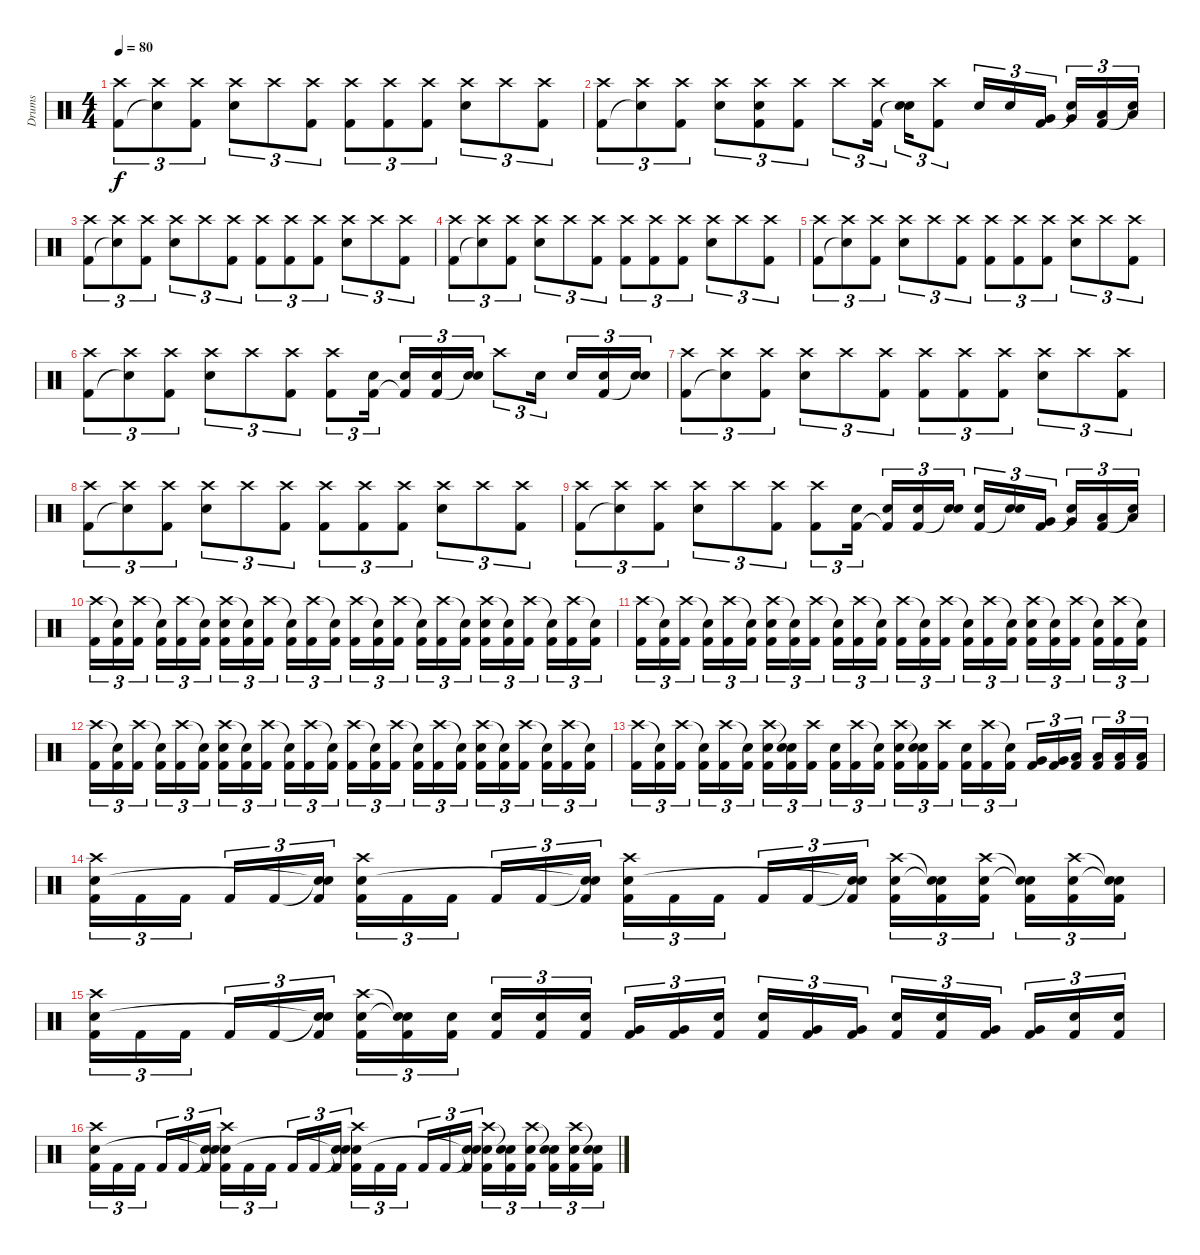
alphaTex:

\track ("Drums" "Drums") {instrument percussion}
\staff {score}
\articulation defaults
\ts (4 4)
\tempo 80
\clef neutral
\ks c
("Crash high (hit)" "Kick (hit) 2").8{tu (3 2) dy f} ("Crash high (hit)" "Snare (hit)"{t}).8{tu (3 2)} ("Crash high (hit)" "Kick (hit) 2").8{tu (3 2)} ("Crash high (hit)" "Snare (hit) 2").8{tu (3 2)} "Crash high (hit)".8{tu (3 2)} ("Crash high (hit)" "Kick (hit) 2").8{tu (3 2)} ("Crash high (hit)" "Kick (hit) 2").8{tu (3 2)} ("Crash high (hit)" "Kick (hit) 2").8{tu (3 2)} ("Crash high (hit)" "Kick (hit) 2").8{tu (3 2)} ("Crash high (hit)" "Snare (hit) 2").8{tu (3 2)} "Crash high (hit)".8{tu (3 2)} ("Crash high (hit)" "Kick (hit) 2").8{tu (3 2)} |
("Crash high (hit)" "Kick (hit) 2").8{tu (3 2)} ("Crash high (hit)" "Snare (hit)"{t}).8{tu (3 2)} ("Crash high (hit)" "Kick (hit) 2").8{tu (3 2)} ("Crash high (hit)" "Snare (hit) 2").8{tu (3 2)} ("Crash high (hit)" "Snare (hit) 2" "Kick (hit) 2").8{tu (3 2)} ("Crash high (hit)" "Kick (hit) 2").8{tu (3 2)} "Crash high (hit)".8{tu (3 2)} ("Crash high (hit)" "Kick (hit) 2").16{tu (3 2)} ("Snare (hit) 2" "Snare (hit)"{t}).16{tu (3 2)} ("Crash high (hit)" "Kick (hit) 2").8{tu (3 2)} "Snare (hit) 2".16{tu (3 2)} "Snare (hit) 2".16{tu (3 2)} ("Very Low Tom (hit)" "Kick (hit) 2").16{tu (3 2)} ("Very Low Tom (hit)" "Snare (hit)"{t}).16{tu (3 2)} ("Low Floor Tom (hit)" "Kick (hit) 2").16{tu (3 2)} ("Low Floor Tom (hit)" "Snare (hit)"{t}).16{tu (3 2)} |
("Crash high (hit)" "Kick (hit) 2").8{tu (3 2)} ("Crash high (hit)" "Snare (hit)"{t}).8{tu (3 2)} ("Crash high (hit)" "Kick (hit) 2").8{tu (3 2)} ("Crash high (hit)" "Snare (hit) 2").8{tu (3 2)} "Crash high (hit)".8{tu (3 2)} ("Crash high (hit)" "Kick (hit) 2").8{tu (3 2)} ("Crash high (hit)" "Kick (hit) 2").8{tu (3 2)} ("Crash high (hit)" "Kick (hit) 2").8{tu (3 2)} ("Crash high (hit)" "Kick (hit) 2").8{tu (3 2)} ("Crash high (hit)" "Snare (hit) 2").8{tu (3 2)} "Crash high (hit)".8{tu (3 2)} ("Crash high (hit)" "Kick (hit) 2").8{tu (3 2)} |
("Crash high (hit)" "Kick (hit) 2").8{tu (3 2)} ("Crash high (hit)" "Snare (hit)"{t}).8{tu (3 2)} ("Crash high (hit)" "Kick (hit) 2").8{tu (3 2)} ("Crash high (hit)" "Snare (hit) 2").8{tu (3 2)} "Crash high (hit)".8{tu (3 2)} ("Crash high (hit)" "Kick (hit) 2").8{tu (3 2)} ("Crash high (hit)" "Kick (hit) 2").8{tu (3 2)} ("Crash high (hit)" "Kick (hit) 2").8{tu (3 2)} ("Crash high (hit)" "Kick (hit) 2").8{tu (3 2)} ("Crash high (hit)" "Snare (hit) 2").8{tu (3 2)} "Crash high (hit)".8{tu (3 2)} ("Crash high (hit)" "Kick (hit) 2").8{tu (3 2)} |
("Crash high (hit)" "Kick (hit) 2").8{tu (3 2)} ("Crash high (hit)" "Snare (hit)"{t}).8{tu (3 2)} ("Crash high (hit)" "Kick (hit) 2").8{tu (3 2)} ("Crash high (hit)" "Snare (hit) 2").8{tu (3 2)} "Crash high (hit)".8{tu (3 2)} ("Crash high (hit)" "Kick (hit) 2").8{tu (3 2)} ("Crash high (hit)" "Kick (hit) 2").8{tu (3 2)} ("Crash high (hit)" "Kick (hit) 2").8{tu (3 2)} ("Crash high (hit)" "Kick (hit) 2").8{tu (3 2)} ("Crash high (hit)" "Snare (hit) 2").8{tu (3 2)} "Crash high (hit)".8{tu (3 2)} ("Crash high (hit)" "Kick (hit) 2").8{tu (3 2)} |
("Crash high (hit)" "Kick (hit) 2").8{tu (3 2)} ("Crash high (hit)" "Snare (hit)"{t}).8{tu (3 2)} ("Crash high (hit)" "Kick (hit) 2").8{tu (3 2)} ("Crash high (hit)" "Snare (hit) 2").8{tu (3 2)} "Crash high (hit)".8{tu (3 2)} ("Crash high (hit)" "Kick (hit) 2").8{tu (3 2)} ("Crash high (hit)" "Kick (hit) 2").8{tu (3 2)} ("Snare (hit) 2" "Kick (hit) 2").16{tu (3 2)} ("Snare (hit) 2" "Kick (hit) 2"{t}).16{tu (3 2)} ("Snare (hit) 2" "Kick (hit) 2").16{tu (3 2)} ("Snare (hit) 2" "Snare (hit)"{t}).16{tu (3 2)} "Crash high (hit)".8{tu (3 2)} "Snare (hit) 2".16{tu (3 2)} "Snare (hit) 2".16{tu (3 2)} ("Snare (hit) 2" "Kick (hit) 2").16{tu (3 2)} ("Snare (hit) 2" "Snare (hit)"{t}).16{tu (3 2)} |
("Crash high (hit)" "Kick (hit) 2").8{tu (3 2)} ("Crash high (hit)" "Snare (hit)"{t}).8{tu (3 2)} ("Crash high (hit)" "Kick (hit) 2").8{tu (3 2)} ("Crash high (hit)" "Snare (hit) 2").8{tu (3 2)} "Crash high (hit)".8{tu (3 2)} ("Crash high (hit)" "Kick (hit) 2").8{tu (3 2)} ("Crash high (hit)" "Kick (hit) 2").8{tu (3 2)} ("Crash high (hit)" "Kick (hit) 2").8{tu (3 2)} ("Crash high (hit)" "Kick (hit) 2").8{tu (3 2)} ("Crash high (hit)" "Snare (hit) 2").8{tu (3 2)} "Crash high (hit)".8{tu (3 2)} ("Crash high (hit)" "Kick (hit) 2").8{tu (3 2)} |
("Crash high (hit)" "Kick (hit) 2").8{tu (3 2)} ("Crash high (hit)" "Snare (hit)"{t}).8{tu (3 2)} ("Crash high (hit)" "Kick (hit) 2").8{tu (3 2)} ("Crash high (hit)" "Snare (hit) 2").8{tu (3 2)} "Crash high (hit)".8{tu (3 2)} ("Crash high (hit)" "Kick (hit) 2").8{tu (3 2)} ("Crash high (hit)" "Kick (hit) 2").8{tu (3 2)} ("Crash high (hit)" "Kick (hit) 2").8{tu (3 2)} ("Crash high (hit)" "Kick (hit) 2").8{tu (3 2)} ("Crash high (hit)" "Snare (hit) 2").8{tu (3 2)} "Crash high (hit)".8{tu (3 2)} ("Crash high (hit)" "Kick (hit) 2").8{tu (3 2)} |
("Crash high (hit)" "Kick (hit) 2").8{tu (3 2)} ("Crash high (hit)" "Snare (hit)"{t}).8{tu (3 2)} ("Crash high (hit)" "Kick (hit) 2").8{tu (3 2)} ("Crash high (hit)" "Snare (hit) 2").8{tu (3 2)} "Crash high (hit)".8{tu (3 2)} ("Crash high (hit)" "Kick (hit) 2").8{tu (3 2)} ("Crash high (hit)" "Kick (hit) 2").8{tu (3 2)} ("Snare (hit) 2" "Kick (hit) 2").16{tu (3 2)} ("Snare (hit) 2" "Kick (hit) 2"{t}).16{tu (3 2)} ("Snare (hit) 2" "Kick (hit) 2").16{tu (3 2)} ("Snare (hit) 2" "Snare (hit)"{t}).16{tu (3 2)} ("Snare (hit) 2" "Kick (hit) 2").16{tu (3 2)} ("Snare (hit) 2" "Snare (hit)"{t}).16{tu (3 2)} ("Very Low Tom (hit)" "Kick (hit) 2").16{tu (3 2)} ("Very Low Tom (hit)" "Snare (hit)"{t}).16{tu (3 2)} ("Low Floor Tom (hit)" "Kick (hit) 2").16{tu (3 2)} ("Low Floor Tom (hit)" "Snare (hit)"{t}).16{tu (3 2)} |
("Crash high (hit)" "Kick (hit) 2").16{tu (3 2)} ("Snare (hit)"{t} "Kick (hit) 2").16{tu (3 2)} ("Crash high (hit)" "Kick (hit) 2").16{tu (3 2)} ("Snare (hit)"{t} "Kick (hit) 2").16{tu (3 2)} ("Crash high (hit)" "Kick (hit) 2").16{tu (3 2)} ("Snare (hit)"{t} "Kick (hit) 2").16{tu (3 2)} ("Crash high (hit)" "Snare (hit) 2" "Kick (hit) 2").16{tu (3 2)} ("Snare (hit)"{t} "Kick (hit) 2").16{tu (3 2)} ("Crash high (hit)" "Kick (hit) 2").16{tu (3 2)} ("Snare (hit)"{t} "Kick (hit) 2").16{tu (3 2)} ("Crash high (hit)" "Kick (hit) 2").16{tu (3 2)} ("Snare (hit)"{t} "Kick (hit) 2").16{tu (3 2)} ("Crash high (hit)" "Kick (hit) 2").16{tu (3 2)} ("Snare (hit)"{t} "Kick (hit) 2").16{tu (3 2)} ("Crash high (hit)" "Kick (hit) 2").16{tu (3 2)} ("Snare (hit)"{t} "Kick (hit) 2").16{tu (3 2)} ("Crash high (hit)" "Kick (hit) 2").16{tu (3 2)} ("Snare (hit)"{t} "Kick (hit) 2").16{tu (3 2)} ("Crash high (hit)" "Snare (hit) 2" "Kick (hit) 2").16{tu (3 2)} ("Snare (hit)"{t} "Kick (hit) 2").16{tu (3 2)} ("Crash high (hit)" "Kick (hit) 2").16{tu (3 2)} ("Snare (hit)"{t} "Kick (hit) 2").16{tu (3 2)} ("Crash high (hit)" "Kick (hit) 2").16{tu (3 2)} ("Snare (hit)"{t} "Kick (hit) 2").16{tu (3 2)} |
("Crash high (hit)" "Kick (hit) 2").16{tu (3 2)} ("Snare (hit)"{t} "Kick (hit) 2").16{tu (3 2)} ("Crash high (hit)" "Kick (hit) 2").16{tu (3 2)} ("Snare (hit)"{t} "Kick (hit) 2").16{tu (3 2)} ("Crash high (hit)" "Kick (hit) 2").16{tu (3 2)} ("Snare (hit)"{t} "Kick (hit) 2").16{tu (3 2)} ("Crash high (hit)" "Snare (hit) 2" "Kick (hit) 2").16{tu (3 2)} ("Snare (hit)"{t} "Kick (hit) 2").16{tu (3 2)} ("Crash high (hit)" "Kick (hit) 2").16{tu (3 2)} ("Snare (hit)"{t} "Kick (hit) 2").16{tu (3 2)} ("Crash high (hit)" "Kick (hit) 2").16{tu (3 2)} ("Snare (hit)"{t} "Kick (hit) 2").16{tu (3 2)} ("Crash high (hit)" "Kick (hit) 2").16{tu (3 2)} ("Snare (hit)"{t} "Kick (hit) 2").16{tu (3 2)} ("Crash high (hit)" "Kick (hit) 2").16{tu (3 2)} ("Snare (hit)"{t} "Kick (hit) 2").16{tu (3 2)} ("Crash high (hit)" "Kick (hit) 2").16{tu (3 2)} ("Snare (hit)"{t} "Kick (hit) 2").16{tu (3 2)} ("Crash high (hit)" "Snare (hit) 2" "Kick (hit) 2").16{tu (3 2)} ("Snare (hit)"{t} "Kick (hit) 2").16{tu (3 2)} ("Crash high (hit)" "Kick (hit) 2").16{tu (3 2)} ("Snare (hit)"{t} "Kick (hit) 2").16{tu (3 2)} ("Crash high (hit)" "Kick (hit) 2").16{tu (3 2)} ("Snare (hit)"{t} "Kick (hit) 2").16{tu (3 2)} |
("Crash high (hit)" "Kick (hit) 2").16{tu (3 2)} ("Snare (hit)"{t} "Kick (hit) 2").16{tu (3 2)} ("Crash high (hit)" "Kick (hit) 2").16{tu (3 2)} ("Snare (hit)"{t} "Kick (hit) 2").16{tu (3 2)} ("Crash high (hit)" "Kick (hit) 2").16{tu (3 2)} ("Snare (hit)"{t} "Kick (hit) 2").16{tu (3 2)} ("Crash high (hit)" "Snare (hit) 2" "Kick (hit) 2").16{tu (3 2)} ("Snare (hit)"{t} "Kick (hit) 2").16{tu (3 2)} ("Crash high (hit)" "Kick (hit) 2").16{tu (3 2)} ("Snare (hit)"{t} "Kick (hit) 2").16{tu (3 2)} ("Crash high (hit)" "Kick (hit) 2").16{tu (3 2)} ("Snare (hit)"{t} "Kick (hit) 2").16{tu (3 2)} ("Crash high (hit)" "Kick (hit) 2").16{tu (3 2)} ("Snare (hit)"{t} "Kick (hit) 2").16{tu (3 2)} ("Crash high (hit)" "Kick (hit) 2").16{tu (3 2)} ("Snare (hit)"{t} "Kick (hit) 2").16{tu (3 2)} ("Crash high (hit)" "Kick (hit) 2").16{tu (3 2)} ("Snare (hit)"{t} "Kick (hit) 2").16{tu (3 2)} ("Crash high (hit)" "Snare (hit) 2" "Kick (hit) 2").16{tu (3 2)} ("Snare (hit)"{t} "Kick (hit) 2").16{tu (3 2)} ("Crash high (hit)" "Kick (hit) 2").16{tu (3 2)} ("Snare (hit)"{t} "Kick (hit) 2").16{tu (3 2)} ("Crash high (hit)" "Kick (hit) 2").16{tu (3 2)} ("Snare (hit)"{t} "Kick (hit) 2").16{tu (3 2)} |
("Crash high (hit)" "Kick (hit) 2").16{tu (3 2)} ("Snare (hit)"{t} "Kick (hit) 2").16{tu (3 2)} ("Crash high (hit)" "Kick (hit) 2").16{tu (3 2)} ("Snare (hit)"{t} "Kick (hit) 2").16{tu (3 2)} ("Crash high (hit)" "Kick (hit) 2").16{tu (3 2)} ("Snare (hit)"{t} "Kick (hit) 2").16{tu (3 2)} ("Crash high (hit)" "Snare (hit) 2" "Kick (hit) 2").16{tu (3 2)} ("Snare (hit)"{t} "Snare (hit)"{t} "Kick (hit) 2").16{tu (3 2)} ("Crash high (hit)" "Kick (hit) 2").16{tu (3 2)} ("Snare (hit) 2" "Kick (hit) 2").16{tu (3 2)} ("Crash high (hit)" "Kick (hit) 2").16{tu (3 2)} ("Snare (hit)"{t} "Kick (hit) 2").16{tu (3 2)} ("Crash high (hit)" "Snare (hit) 2" "Kick (hit) 2").16{tu (3 2)} ("Snare (hit)"{t} "Snare (hit)"{t} "Kick (hit) 2").16{tu (3 2)} ("Crash high (hit)" "Kick (hit) 2").16{tu (3 2)} ("Snare (hit) 2" "Kick (hit) 2").16{tu (3 2)} ("Crash high (hit)" "Kick (hit) 2").16{tu (3 2)} ("Snare (hit)"{t} "Kick (hit) 2").16{tu (3 2)} ("Very Low Tom (hit)" "Kick (hit) 2").16{tu (3 2)} ("Very Low Tom (hit)" "Kick (hit) 2").16{tu (3 2)} ("Low Floor Tom (hit)" "Kick (hit) 2").16{tu (3 2)} ("Low Floor Tom (hit)" "Kick (hit) 2").16{tu (3 2)} ("Low Floor Tom (hit)" "Kick (hit) 2").16{tu (3 2)} ("Low Floor Tom (hit)" "Kick (hit) 2").16{tu (3 2)} |
("Crash high (hit)" "Snare (hit) 2" "Kick (hit) 2").16{tu (3 2)} "Kick (hit) 2".16{tu (3 2)} "Kick (hit) 2".16{tu (3 2)} "Kick (hit) 2".16{tu (3 2)} "Kick (hit) 2".16{tu (3 2)} ("Snare (hit)"{t} "Snare (hit)"{t} "Kick (hit) 2").16{tu (3 2)} ("Crash high (hit)" "Snare (hit) 2" "Kick (hit) 2").16{tu (3 2)} "Kick (hit) 2".16{tu (3 2)} "Kick (hit) 2".16{tu (3 2)} "Kick (hit) 2".16{tu (3 2)} "Kick (hit) 2".16{tu (3 2)} ("Snare (hit)"{t} "Snare (hit)"{t} "Kick (hit) 2").16{tu (3 2)} ("Crash high (hit)" "Snare (hit) 2" "Kick (hit) 2").16{tu (3 2)} "Kick (hit) 2".16{tu (3 2)} "Kick (hit) 2".16{tu (3 2)} "Kick (hit) 2".16{tu (3 2)} "Kick (hit) 2".16{tu (3 2)} ("Snare (hit)"{t} "Snare (hit)"{t} "Kick (hit) 2").16{tu (3 2)} ("Crash high (hit)" "Snare (hit) 2" "Kick (hit) 2").16{tu (3 2)} ("Snare (hit)"{t} "Snare (hit)"{t} "Kick (hit) 2").16{tu (3 2)} ("Crash high (hit)" "Snare (hit) 2" "Kick (hit) 2").16{tu (3 2)} ("Snare (hit)"{t} "Snare (hit)"{t} "Kick (hit) 2").16{tu (3 2)} ("Crash high (hit)" "Snare (hit) 2" "Kick (hit) 2").16{tu (3 2)} ("Snare (hit)"{t} "Snare (hit)"{t} "Kick (hit) 2").16{tu (3 2)} |
("Crash high (hit)" "Snare (hit) 2" "Kick (hit) 2").16{tu (3 2)} "Kick (hit) 2".16{tu (3 2)} "Kick (hit) 2".16{tu (3 2)} "Kick (hit) 2".16{tu (3 2)} "Kick (hit) 2".16{tu (3 2)} ("Snare (hit)"{t} "Snare (hit)"{t} "Kick (hit) 2").16{tu (3 2)} ("Crash high (hit)" "Snare (hit) 2" "Kick (hit) 2").16{tu (3 2)} ("Snare (hit)"{t} "Snare (hit)"{t} "Kick (hit) 2").16{tu (3 2)} ("Snare (hit) 2" "Kick (hit) 2").16{tu (3 2)} ("Snare (hit) 2" "Kick (hit) 2").16{tu (3 2)} ("Snare (hit) 2" "Kick (hit) 2").16{tu (3 2)} ("Snare (hit) 2" "Kick (hit) 2").16{tu (3 2)} ("Very Low Tom (hit)" "Kick (hit) 2").16{tu (3 2)} ("Very Low Tom (hit)" "Kick (hit) 2").16{tu (3 2)} ("Snare (hit) 2" "Kick (hit) 2").16{tu (3 2)} ("Snare (hit) 2" "Kick (hit) 2").16{tu (3 2)} ("Very Low Tom (hit)" "Kick (hit) 2").16{tu (3 2)} ("Very Low Tom (hit)" "Kick (hit) 2").16{tu (3 2)} ("Snare (hit) 2" "Kick (hit) 2").16{tu (3 2)} ("Snare (hit) 2" "Kick (hit) 2").16{tu (3 2)} ("Very Low Tom (hit)" "Kick (hit) 2").16{tu (3 2)} ("Very Low Tom (hit)" "Kick (hit) 2").16{tu (3 2)} ("Snare (hit) 2" "Kick (hit) 2").16{tu (3 2)} ("Snare (hit) 2" "Kick (hit) 2").16{tu (3 2)} |
("Crash high (hit)" "Snare (hit) 2" "Kick (hit) 2").16{tu (3 2)} "Kick (hit) 2".16{tu (3 2)} "Kick (hit) 2".16{tu (3 2)} "Kick (hit) 2".16{tu (3 2)} "Kick (hit) 2".16{tu (3 2)} ("Snare (hit)"{t} "Snare (hit)"{t} "Kick (hit) 2").16{tu (3 2)} ("Crash high (hit)" "Snare (hit) 2" "Kick (hit) 2").16{tu (3 2)} "Kick (hit) 2".16{tu (3 2)} "Kick (hit) 2".16{tu (3 2)} "Kick (hit) 2".16{tu (3 2)} "Kick (hit) 2".16{tu (3 2)} ("Snare (hit)"{t} "Snare (hit)"{t} "Kick (hit) 2").16{tu (3 2)} ("Crash high (hit)" "Snare (hit) 2" "Kick (hit) 2").16{tu (3 2)} "Kick (hit) 2".16{tu (3 2)} "Kick (hit) 2".16{tu (3 2)} "Kick (hit) 2".16{tu (3 2)} "Kick (hit) 2".16{tu (3 2)} ("Snare (hit)"{t} "Snare (hit)"{t} "Kick (hit) 2").16{tu (3 2)} ("Crash high (hit)" "Snare (hit) 2" "Kick (hit) 2").16{tu (3 2)} ("Snare (hit)"{t} "Snare (hit)"{t} "Kick (hit) 2").16{tu (3 2)} ("Crash high (hit)" "Snare (hit) 2" "Kick (hit) 2").16{tu (3 2)} ("Snare (hit)"{t} "Snare (hit)"{t} "Kick (hit) 2").16{tu (3 2)} ("Crash high (hit)" "Snare (hit) 2" "Kick (hit) 2").16{tu (3 2)} ("Snare (hit)"{t} "Snare (hit)"{t} "Kick (hit) 2").16{tu (3 2)}
